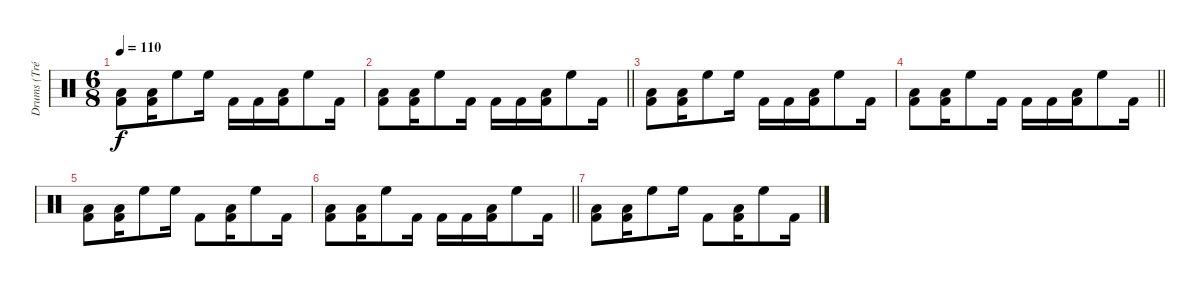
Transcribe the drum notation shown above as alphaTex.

\track ("Drums (Tré Cool)" "Drums (Tré") {instrument percussion}
\staff {score}
\articulation defaults
\ts (6 8)
\tempo 110
\clef neutral
\ks c
("Kick (hit) 2" "Low Floor Tom (hit)").8{dy f} ("Kick (hit) 2" "Low Floor Tom (hit)").16 "High Floor Tom (hit)".8 "High Floor Tom (hit)".16 "Kick (hit) 2".16 "Kick (hit) 2".16 ("Kick (hit) 2" "Low Floor Tom (hit)").16 "High Floor Tom (hit)".8 "Kick (hit) 2".16 |
\barLineRight lightlight
("Kick (hit) 2" "Low Floor Tom (hit)").8 ("Kick (hit) 2" "Low Floor Tom (hit)").16 "High Floor Tom (hit)".8 "Kick (hit) 2".16 "Kick (hit) 2".16 "Kick (hit) 2".16 ("Kick (hit) 2" "Low Floor Tom (hit)").16 "High Floor Tom (hit)".8 "Kick (hit) 2".16 |
("Kick (hit) 2" "Low Floor Tom (hit)").8 ("Kick (hit) 2" "Low Floor Tom (hit)").16 "High Floor Tom (hit)".8 "High Floor Tom (hit)".16 "Kick (hit) 2".16 "Kick (hit) 2".16 ("Kick (hit) 2" "Low Floor Tom (hit)").16 "High Floor Tom (hit)".8 "Kick (hit) 2".16 |
\barLineRight lightlight
("Kick (hit) 2" "Low Floor Tom (hit)").8{volume 0} ("Kick (hit) 2" "Low Floor Tom (hit)").16 "High Floor Tom (hit)".8 "Kick (hit) 2".16 "Kick (hit) 2".16 "Kick (hit) 2".16 ("Kick (hit) 2" "Low Floor Tom (hit)").16 "High Floor Tom (hit)".8 "Kick (hit) 2".16 |
("Kick (hit) 2" "Low Floor Tom (hit)").8 ("Kick (hit) 2" "Low Floor Tom (hit)").16 "High Floor Tom (hit)".8 "High Floor Tom (hit)".16 "Kick (hit) 2".8 ("Kick (hit) 2" "Low Floor Tom (hit)").16 "High Floor Tom (hit)".8 "Kick (hit) 2".16 |
\barLineRight lightlight
("Kick (hit) 2" "Low Floor Tom (hit)").8 ("Kick (hit) 2" "Low Floor Tom (hit)").16 "High Floor Tom (hit)".8 "Kick (hit) 2".16 "Kick (hit) 2".16 "Kick (hit) 2".16 ("Kick (hit) 2" "Low Floor Tom (hit)").16 "High Floor Tom (hit)".8 "Kick (hit) 2".16 |
("Kick (hit) 2" "Low Floor Tom (hit)").8 ("Kick (hit) 2" "Low Floor Tom (hit)").16 "High Floor Tom (hit)".8 "High Floor Tom (hit)".16 "Kick (hit) 2".8 ("Kick (hit) 2" "Low Floor Tom (hit)").16 "High Floor Tom (hit)".8 "Kick (hit) 2".16
